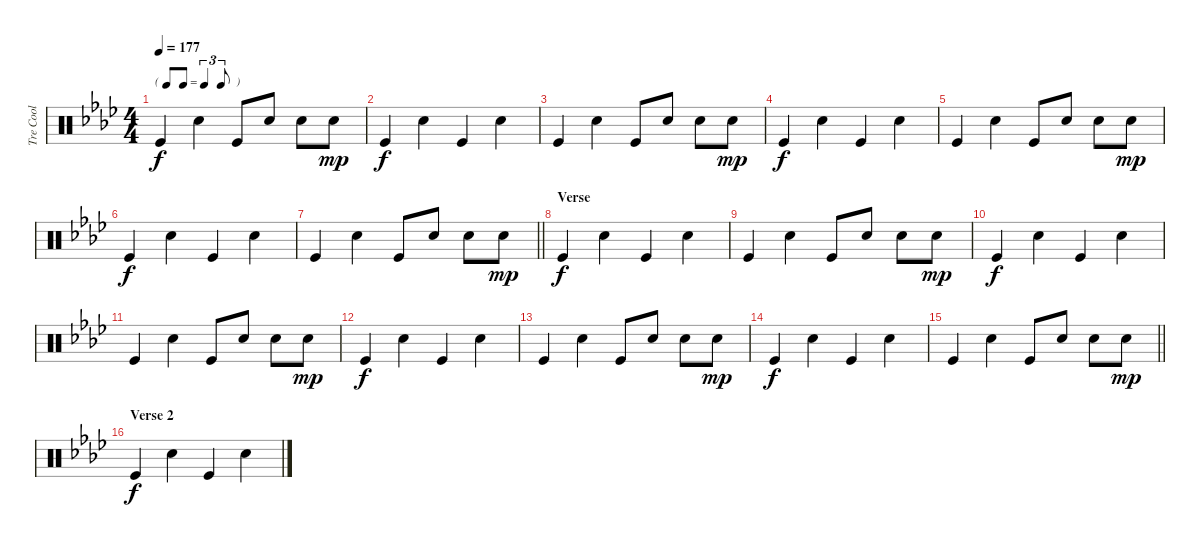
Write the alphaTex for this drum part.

\track ("Tre Cool" "Tre Cool") {instrument percussion}
\staff {score}
\articulation defaults
\ts (4 4)
\tf triplet8th
\tempo 177
\clef neutral
\ks ab "Kick (hit)".4{dy f} "Electric Snare (hit)".4 "Kick (hit)".8 "Electric Snare (hit)".8 "Electric Snare (hit)".8 "Electric Snare (hit)".8{dy mp}
|
"Kick (hit)".4{dy f} "Electric Snare (hit)".4 "Kick (hit)".4 "Electric Snare (hit)".4 |
"Kick (hit)".4 "Electric Snare (hit)".4 "Kick (hit)".8 "Electric Snare (hit)".8 "Electric Snare (hit)".8 "Electric Snare (hit)".8{dy mp} |
"Kick (hit)".4{dy f} "Electric Snare (hit)".4 "Kick (hit)".4 "Electric Snare (hit)".4 |
"Kick (hit)".4 "Electric Snare (hit)".4 "Kick (hit)".8 "Electric Snare (hit)".8 "Electric Snare (hit)".8 "Electric Snare (hit)".8{dy mp} |
"Kick (hit)".4{dy f} "Electric Snare (hit)".4 "Kick (hit)".4 "Electric Snare (hit)".4 |
\barLineRight lightlight "Kick (hit)".4 "Electric Snare (hit)".4 "Kick (hit)".8 "Electric Snare (hit)".8 "Electric Snare (hit)".8 "Electric Snare (hit)".8{dy mp}
|
\section ("" "Verse")
"Kick (hit)".4{dy f} "Electric Snare (hit)".4 "Kick (hit)".4 "Electric Snare (hit)".4 |
"Kick (hit)".4 "Electric Snare (hit)".4 "Kick (hit)".8 "Electric Snare (hit)".8 "Electric Snare (hit)".8 "Electric Snare (hit)".8{dy mp} |
"Kick (hit)".4{dy f} "Electric Snare (hit)".4 "Kick (hit)".4 "Electric Snare (hit)".4 |
"Kick (hit)".4 "Electric Snare (hit)".4 "Kick (hit)".8 "Electric Snare (hit)".8 "Electric Snare (hit)".8 "Electric Snare (hit)".8{dy mp} |
"Kick (hit)".4{dy f} "Electric Snare (hit)".4 "Kick (hit)".4 "Electric Snare (hit)".4 |
"Kick (hit)".4 "Electric Snare (hit)".4 "Kick (hit)".8 "Electric Snare (hit)".8 "Electric Snare (hit)".8 "Electric Snare (hit)".8{dy mp} |
"Kick (hit)".4{dy f} "Electric Snare (hit)".4 "Kick (hit)".4 "Electric Snare (hit)".4 |
\barLineRight lightlight "Kick (hit)".4 "Electric Snare (hit)".4 "Kick (hit)".8 "Electric Snare (hit)".8 "Electric Snare (hit)".8 "Electric Snare (hit)".8{dy mp}
|
\section ("" "Verse 2")
"Kick (hit)".4{dy f} "Electric Snare (hit)".4 "Kick (hit)".4 "Electric Snare (hit)".4
